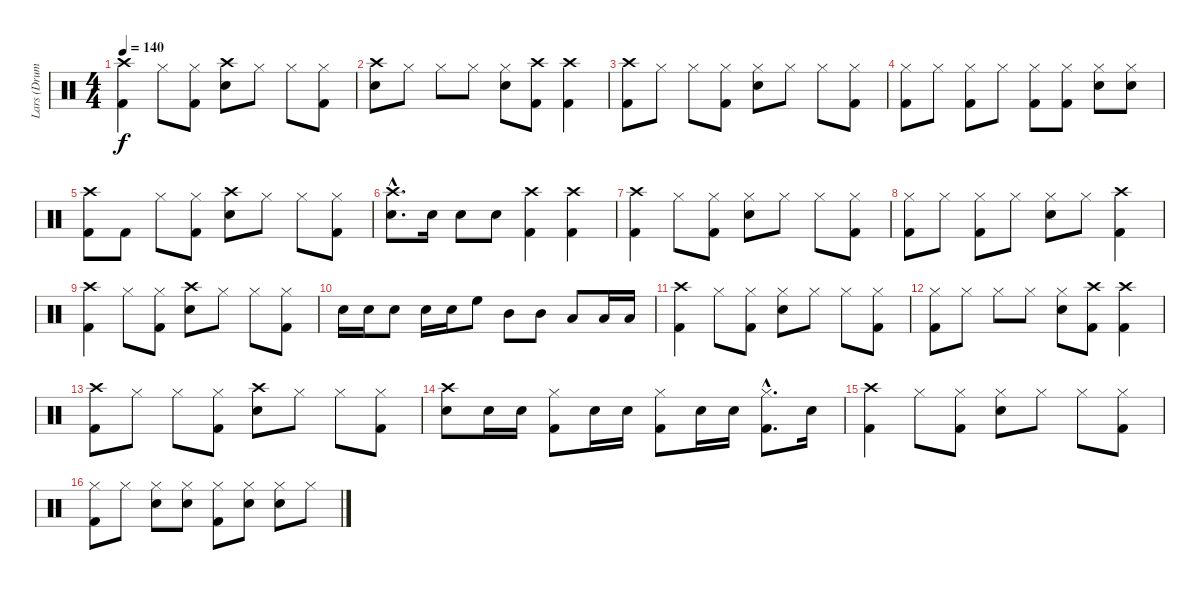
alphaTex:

\track ("Lars (Drums)" "Lars (Drum") {instrument percussion}
\staff {score}
\articulation defaults
\ts (4 4)
\tempo 140
\clef neutral
\ks c
("Crash high (hit)" "Kick (hit) 2").4{dy f} "Hi-Hat (closed)".8 ("Hi-Hat (closed)" "Kick (hit) 2").8 ("Crash high (hit)" "Snare (hit) 2").8 "Hi-Hat (closed)".8 "Hi-Hat (closed)".8 ("Hi-Hat (closed)" "Kick (hit) 2").8 |
("Crash high (hit)" "Snare (hit) 2").8 "Hi-Hat (closed)".8 "Hi-Hat (closed)".8 "Hi-Hat (closed)".8 ("Hi-Hat (closed)" "Snare (hit) 2").8 ("Crash high (hit)" "Kick (hit) 2").8 ("Crash high (hit)" "Kick (hit) 2").4 |
("Crash high (hit)" "Kick (hit) 2").8 "Hi-Hat (closed)".8 "Hi-Hat (closed)".8 ("Hi-Hat (closed)" "Kick (hit) 2").8 ("Hi-Hat (closed)" "Snare (hit) 2").8 "Hi-Hat (closed)".8 "Hi-Hat (closed)".8 ("Hi-Hat (closed)" "Kick (hit) 2").8 |
("Hi-Hat (closed)" "Kick (hit) 2").8 "Hi-Hat (closed)".8 ("Hi-Hat (closed)" "Kick (hit) 2").8 "Hi-Hat (closed)".8 ("Hi-Hat (closed)" "Kick (hit) 2").8 ("Hi-Hat (closed)" "Kick (hit) 2").8 ("Hi-Hat (closed)" "Snare (hit) 2").8 ("Hi-Hat (closed)" "Snare (hit) 2").8 |
("Crash high (hit)" "Kick (hit) 2").8 "Kick (hit) 2".8 "Hi-Hat (closed)".8 ("Hi-Hat (closed)" "Kick (hit) 2").8 ("Crash high (hit)" "Snare (hit) 2").8 "Hi-Hat (closed)".8 "Hi-Hat (closed)".8 ("Hi-Hat (closed)" "Kick (hit) 2").8 |
("Crash high (hit)"{hac} "Snare (hit) 2"{hac}).8{d} "Snare (hit) 2".16 "Snare (hit) 2".8 "Snare (hit) 2".8 ("Crash high (hit)" "Kick (hit) 2").4 ("Crash high (hit)" "Kick (hit) 2").4 |
("Crash high (hit)" "Kick (hit) 2").4 "Hi-Hat (closed)".8 ("Hi-Hat (closed)" "Kick (hit) 2").8 ("Hi-Hat (closed)" "Snare (hit) 2").8 "Hi-Hat (closed)".8 "Hi-Hat (closed)".8 ("Hi-Hat (closed)" "Kick (hit) 2").8 |
("Hi-Hat (closed)" "Kick (hit) 2").8 "Hi-Hat (closed)".8 ("Hi-Hat (closed)" "Kick (hit) 2").8 "Hi-Hat (closed)".8 ("Hi-Hat (closed)" "Snare (hit) 2").8 "Hi-Hat (closed)".8 ("Crash high (hit)" "Kick (hit) 2").4 |
("Crash high (hit)" "Kick (hit) 2").4 "Hi-Hat (closed)".8 ("Hi-Hat (closed)" "Kick (hit) 2").8 ("Crash high (hit)" "Snare (hit) 2").8 "Hi-Hat (closed)".8 "Hi-Hat (closed)".8 ("Hi-Hat (closed)" "Kick (hit) 2").8 |
"Snare (hit) 2".16 "Snare (hit) 2".16 "Snare (hit) 2".8 "Snare (hit) 2".16 "Snare (hit) 2".16 "High Floor Tom (hit)".8 "Mid Tom (hit)".8 "Mid Tom (hit)".8 "Low Tom (hit)".8 "Low Tom (hit)".16 "Low Tom (hit)".16 |
("Crash high (hit)" "Kick (hit) 2").4 "Hi-Hat (closed)".8 ("Hi-Hat (closed)" "Kick (hit) 2").8 ("Hi-Hat (closed)" "Snare (hit) 2").8 "Hi-Hat (closed)".8 "Hi-Hat (closed)".8 ("Hi-Hat (closed)" "Kick (hit) 2").8 |
("Hi-Hat (closed)" "Kick (hit) 2").8 "Hi-Hat (closed)".8 "Hi-Hat (closed)".8 "Hi-Hat (closed)".8 ("Hi-Hat (closed)" "Snare (hit) 2").8 ("Crash high (hit)" "Kick (hit) 2").8 ("Crash high (hit)" "Kick (hit) 2").4 |
("Crash high (hit)" "Kick (hit) 2").8 "Hi-Hat (closed)".8 "Hi-Hat (closed)".8 ("Hi-Hat (closed)" "Kick (hit) 2").8 ("Crash high (hit)" "Snare (hit) 2").8 "Hi-Hat (closed)".8 "Hi-Hat (closed)".8 ("Hi-Hat (closed)" "Kick (hit) 2").8 |
("Crash high (hit)" "Snare (hit) 2").8 "Snare (hit) 2".16 "Snare (hit) 2".16 ("Hi-Hat (closed)" "Kick (hit) 2").8 "Snare (hit) 2".16 "Snare (hit) 2".16 ("Hi-Hat (closed)" "Kick (hit) 2").8 "Snare (hit) 2".16 "Snare (hit) 2".16 ("Hi-Hat (closed)"{hac} "Kick (hit) 2"{hac}).8{d} "Snare (hit) 2".16 |
("Crash high (hit)" "Kick (hit) 2").4 "Hi-Hat (closed)".8 ("Hi-Hat (closed)" "Kick (hit) 2").8 ("Hi-Hat (closed)" "Snare (hit) 2").8 "Hi-Hat (closed)".8 "Hi-Hat (closed)".8 ("Hi-Hat (closed)" "Kick (hit) 2").8 |
("Hi-Hat (closed)" "Kick (hit) 2").8 "Hi-Hat (closed)".8 ("Hi-Hat (closed)" "Snare (hit) 2").8 ("Hi-Hat (closed)" "Snare (hit) 2").8 ("Hi-Hat (closed)" "Kick (hit) 2").8 ("Hi-Hat (closed)" "Snare (hit) 2").8 ("Hi-Hat (closed)" "Snare (hit) 2").8 "Hi-Hat (closed)".8
